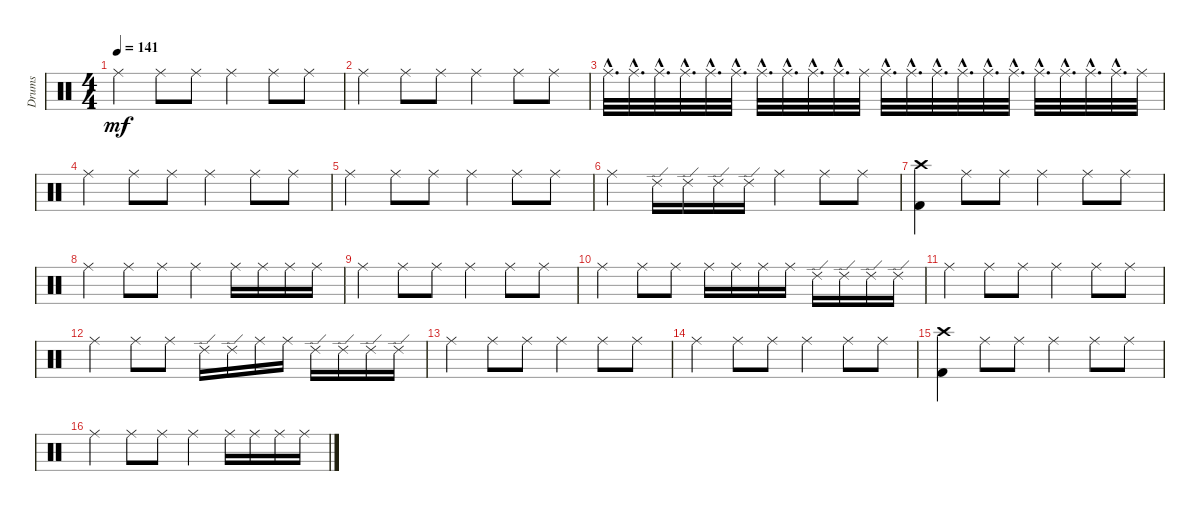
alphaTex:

\track ("Drums" "Drums") {instrument percussion}
\staff {score}
\articulation defaults
\ts (4 4)
\tempo 141
\clef neutral
\ks c "Ride (middle)".4{dy mf} "Ride (middle)".8 "Ride (middle)".8 "Ride (middle)".4 "Ride (middle)".8 "Ride (middle)".8
|
"Ride (middle)".4 "Ride (middle)".8 "Ride (middle)".8 "Ride (middle)".4 "Ride (middle)".8 "Ride (middle)".8 |
"Ride (middle)"{hac}.32{d} "Ride (middle)"{hac}.32{d} "Ride (middle)"{hac}.32{d} "Ride (middle)"{hac}.32{d} "Ride (middle)"{hac}.32{d} "Ride (middle)"{hac}.32{d} "Ride (middle)"{hac}.32{d} "Ride (middle)"{hac}.32{d} "Ride (middle)"{hac}.32{d} "Ride (middle)"{hac}.32{d} "Ride (middle)".32 "Ride (middle)"{hac}.32{d} "Ride (middle)"{hac}.32{d} "Ride (middle)"{hac}.32{d} "Ride (middle)"{hac}.32{d} "Ride (middle)"{hac}.32{d} "Ride (middle)"{hac}.32{d} "Ride (middle)"{hac}.32{d} "Ride (middle)"{hac}.32{d} "Ride (middle)"{hac}.32{d} "Ride (middle)"{hac}.32{d} "Ride (middle)".32 |
"Ride (middle)".4 "Ride (middle)".8 "Ride (middle)".8 "Ride (middle)".4 "Ride (middle)".8 "Ride (middle)".8 |
"Ride (middle)".4 "Ride (middle)".8 "Ride (middle)".8 "Ride (middle)".4 "Ride (middle)".8 "Ride (middle)".8 |
"Ride (middle)".4 "Ride (edge) 2".16 "Ride (edge) 2".16 "Ride (edge) 2".16 "Ride (edge) 2".16 "Ride (middle)".4 "Ride (middle)".8 "Ride (middle)".8 |
("Crash high (hit)" "Kick (hit) 2").4 "Ride (middle)".8 "Ride (middle)".8 "Ride (middle)".4 "Ride (middle)".8 "Ride (middle)".8 |
"Ride (middle)".4 "Ride (middle)".8 "Ride (middle)".8 "Ride (middle)".4 "Ride (middle)".16 "Ride (middle)".16 "Ride (middle)".16 "Ride (middle)".16 |
"Ride (middle)".4 "Ride (middle)".8 "Ride (middle)".8 "Ride (middle)".4 "Ride (middle)".8 "Ride (middle)".8 |
"Ride (middle)".4 "Ride (middle)".8 "Ride (middle)".8 "Ride (middle)".16 "Ride (middle)".16 "Ride (middle)".16 "Ride (middle)".16 "Ride (edge) 2".16 "Ride (edge) 2".16 "Ride (edge) 2".16 "Ride (edge) 2".16 |
"Ride (middle)".4 "Ride (middle)".8 "Ride (middle)".8 "Ride (middle)".4 "Ride (middle)".8 "Ride (middle)".8 |
"Ride (middle)".4 "Ride (middle)".8 "Ride (middle)".8 "Ride (edge) 2".16 "Ride (edge) 2".16 "Ride (middle)".16 "Ride (middle)".16 "Ride (edge) 2".16 "Ride (edge) 2".16 "Ride (edge) 2".16 "Ride (edge) 2".16 |
"Ride (middle)".4 "Ride (middle)".8 "Ride (middle)".8 "Ride (middle)".4 "Ride (middle)".8 "Ride (middle)".8 |
"Ride (middle)".4 "Ride (middle)".8 "Ride (middle)".8 "Ride (middle)".4 "Ride (middle)".8 "Ride (middle)".8 |
("Crash high (hit)" "Kick (hit) 2").4 "Ride (middle)".8 "Ride (middle)".8 "Ride (middle)".4 "Ride (middle)".8 "Ride (middle)".8 |
"Ride (middle)".4 "Ride (middle)".8 "Ride (middle)".8 "Ride (middle)".4 "Ride (middle)".16 "Ride (middle)".16 "Ride (middle)".16 "Ride (middle)".16
